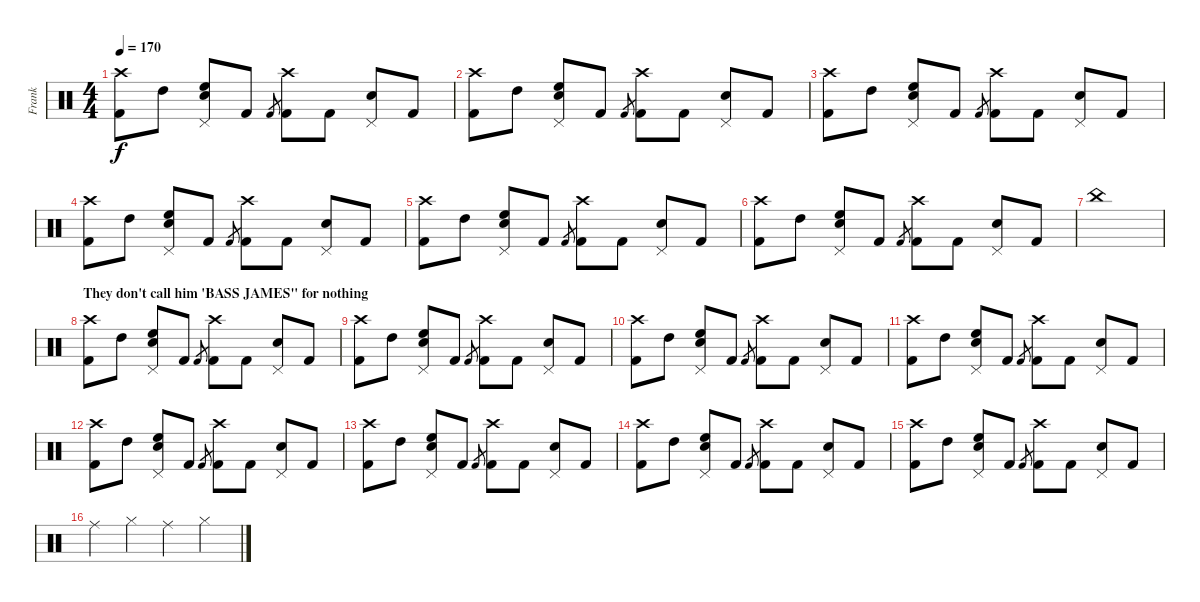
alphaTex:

\track ("Frank" "Frank") {instrument percussion}
\staff {score}
\articulation defaults
\ts (4 4)
\tempo 170
\clef neutral
\ks c
("Crash high (hit)" "Kick (hit) 2").8{dy f} "High Tom (hit)".8 ("Pedal Hi-Hat (hit)" "High Floor Tom (hit)" "Snare (hit) 2").8 "Kick (hit) 2".8 "Kick (hit) 2".8{gr} ("Crash high (hit)" "Kick (hit) 2").8 "Kick (hit) 2".8 ("Pedal Hi-Hat (hit)" "Snare (hit) 2").8 "Kick (hit) 2".8 |
("Crash high (hit)" "Kick (hit) 2").8 "High Tom (hit)".8 ("Pedal Hi-Hat (hit)" "High Floor Tom (hit)" "Snare (hit) 2").8 "Kick (hit) 2".8 "Kick (hit) 2".8{gr} ("Crash high (hit)" "Kick (hit) 2").8 "Kick (hit) 2".8 ("Pedal Hi-Hat (hit)" "Snare (hit) 2").8 "Kick (hit) 2".8 |
("Crash high (hit)" "Kick (hit) 2").8 "High Tom (hit)".8 ("Pedal Hi-Hat (hit)" "High Floor Tom (hit)" "Snare (hit) 2").8 "Kick (hit) 2".8 "Kick (hit) 2".8{gr} ("Crash high (hit)" "Kick (hit) 2").8 "Kick (hit) 2".8 ("Pedal Hi-Hat (hit)" "Snare (hit) 2").8 "Kick (hit) 2".8 |
("Crash high (hit)" "Kick (hit) 2").8 "High Tom (hit)".8 ("Pedal Hi-Hat (hit)" "High Floor Tom (hit)" "Snare (hit) 2").8 "Kick (hit) 2".8 "Kick (hit) 2".8{gr} ("Crash high (hit)" "Kick (hit) 2").8 "Kick (hit) 2".8 ("Pedal Hi-Hat (hit)" "Snare (hit) 2").8 "Kick (hit) 2".8 |
("Crash high (hit)" "Kick (hit) 2").8 "High Tom (hit)".8 ("Pedal Hi-Hat (hit)" "High Floor Tom (hit)" "Snare (hit) 2").8 "Kick (hit) 2".8 "Kick (hit) 2".8{gr} ("Crash high (hit)" "Kick (hit) 2").8 "Kick (hit) 2".8 ("Pedal Hi-Hat (hit)" "Snare (hit) 2").8 "Kick (hit) 2".8 |
("Crash high (hit)" "Kick (hit) 2").8 "High Tom (hit)".8 ("Pedal Hi-Hat (hit)" "High Floor Tom (hit)" "Snare (hit) 2").8 "Kick (hit) 2".8 "Kick (hit) 2".8{gr} ("Crash high (hit)" "Kick (hit) 2").8 "Kick (hit) 2".8 ("Pedal Hi-Hat (hit)" "Snare (hit) 2").8 "Kick (hit) 2".8 |
"China (hit)".1 |
\section ("" "They don't call him 'BASS JAMES\" for nothing")
("Crash high (hit)" "Kick (hit) 2").8 "High Tom (hit)".8 ("Pedal Hi-Hat (hit)" "High Floor Tom (hit)" "Snare (hit) 2").8 "Kick (hit) 2".8 "Kick (hit) 2".8{gr} ("Crash high (hit)" "Kick (hit) 2").8 "Kick (hit) 2".8 ("Pedal Hi-Hat (hit)" "Snare (hit) 2").8 "Kick (hit) 2".8 |
("Crash high (hit)" "Kick (hit) 2").8 "High Tom (hit)".8 ("Pedal Hi-Hat (hit)" "High Floor Tom (hit)" "Snare (hit) 2").8 "Kick (hit) 2".8 "Kick (hit) 2".8{gr} ("Crash high (hit)" "Kick (hit) 2").8 "Kick (hit) 2".8 ("Pedal Hi-Hat (hit)" "Snare (hit) 2").8 "Kick (hit) 2".8 |
("Crash high (hit)" "Kick (hit) 2").8 "High Tom (hit)".8 ("Pedal Hi-Hat (hit)" "High Floor Tom (hit)" "Snare (hit) 2").8 "Kick (hit) 2".8 "Kick (hit) 2".8{gr} ("Crash high (hit)" "Kick (hit) 2").8 "Kick (hit) 2".8 ("Pedal Hi-Hat (hit)" "Snare (hit) 2").8 "Kick (hit) 2".8 |
("Crash high (hit)" "Kick (hit) 2").8 "High Tom (hit)".8 ("Pedal Hi-Hat (hit)" "High Floor Tom (hit)" "Snare (hit) 2").8 "Kick (hit) 2".8 "Kick (hit) 2".8{gr} ("Crash high (hit)" "Kick (hit) 2").8 "Kick (hit) 2".8 ("Pedal Hi-Hat (hit)" "Snare (hit) 2").8 "Kick (hit) 2".8 |
("Crash high (hit)" "Kick (hit) 2").8 "High Tom (hit)".8 ("Pedal Hi-Hat (hit)" "High Floor Tom (hit)" "Snare (hit) 2").8 "Kick (hit) 2".8 "Kick (hit) 2".8{gr} ("Crash high (hit)" "Kick (hit) 2").8 "Kick (hit) 2".8 ("Pedal Hi-Hat (hit)" "Snare (hit) 2").8 "Kick (hit) 2".8 |
("Crash high (hit)" "Kick (hit) 2").8 "High Tom (hit)".8 ("Pedal Hi-Hat (hit)" "High Floor Tom (hit)" "Snare (hit) 2").8 "Kick (hit) 2".8 "Kick (hit) 2".8{gr} ("Crash high (hit)" "Kick (hit) 2").8 "Kick (hit) 2".8 ("Pedal Hi-Hat (hit)" "Snare (hit) 2").8 "Kick (hit) 2".8 |
("Crash high (hit)" "Kick (hit) 2").8 "High Tom (hit)".8 ("Pedal Hi-Hat (hit)" "High Floor Tom (hit)" "Snare (hit) 2").8 "Kick (hit) 2".8 "Kick (hit) 2".8{gr} ("Crash high (hit)" "Kick (hit) 2").8 "Kick (hit) 2".8 ("Pedal Hi-Hat (hit)" "Snare (hit) 2").8 "Kick (hit) 2".8 |
("Crash high (hit)" "Kick (hit) 2").8 "High Tom (hit)".8 ("Pedal Hi-Hat (hit)" "High Floor Tom (hit)" "Snare (hit) 2").8 "Kick (hit) 2".8 "Kick (hit) 2".8{gr} ("Crash high (hit)" "Kick (hit) 2").8 "Kick (hit) 2".8 ("Pedal Hi-Hat (hit)" "Snare (hit) 2").8 "Kick (hit) 2".8 |
"Ride (middle)".4 "Hi-Hat (closed)".4 "Ride (middle)".4 "Hi-Hat (closed)".4
